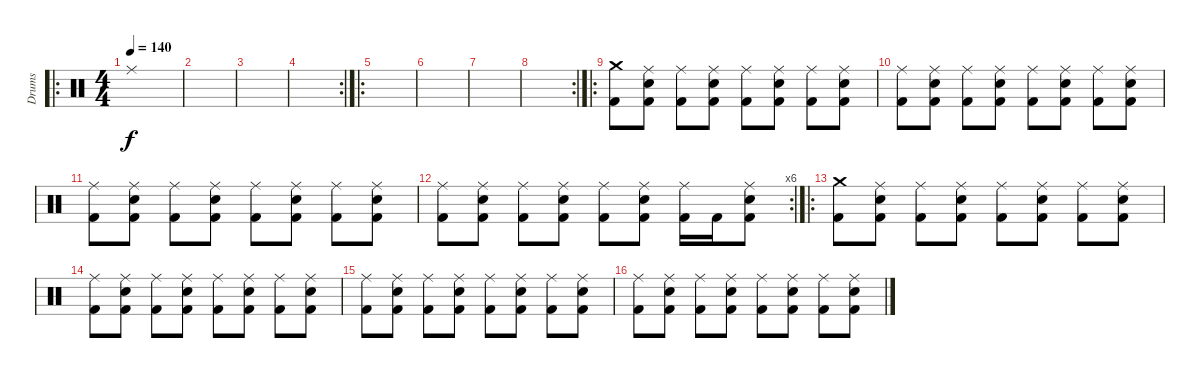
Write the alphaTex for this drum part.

\track ("Drums" "Drums") {instrument percussion}
\staff {score}
\articulation defaults
\ro
\ts (4 4)
\tempo 140
\clef neutral
\ks c "Ride (middle)".1{dy f}
|
|
|
\rc 2
|
\ro
|
|
|
\rc 2
|
\ro
("Crash medium (hit)" "Kick (hit) 2").8 ("Ride (middle)" "Electric Snare (hit)" "Kick (hit) 2").8 ("Ride (middle)" "Kick (hit) 2").8 ("Ride (middle)" "Electric Snare (hit)" "Kick (hit) 2").8 ("Ride (middle)" "Kick (hit) 2").8 ("Ride (middle)" "Electric Snare (hit)" "Kick (hit) 2").8 ("Ride (middle)" "Kick (hit) 2").8 ("Ride (middle)" "Electric Snare (hit)" "Kick (hit) 2").8 |
("Ride (middle)" "Kick (hit) 2").8 ("Ride (middle)" "Electric Snare (hit)" "Kick (hit) 2").8 ("Ride (middle)" "Kick (hit) 2").8 ("Ride (middle)" "Electric Snare (hit)" "Kick (hit) 2").8 ("Ride (middle)" "Kick (hit) 2").8 ("Ride (middle)" "Electric Snare (hit)" "Kick (hit) 2").8 ("Ride (middle)" "Kick (hit) 2").8 ("Ride (middle)" "Electric Snare (hit)" "Kick (hit) 2").8 |
("Ride (middle)" "Kick (hit) 2").8 ("Ride (middle)" "Electric Snare (hit)" "Kick (hit) 2").8 ("Ride (middle)" "Kick (hit) 2").8 ("Ride (middle)" "Electric Snare (hit)" "Kick (hit) 2").8 ("Ride (middle)" "Kick (hit) 2").8 ("Ride (middle)" "Electric Snare (hit)" "Kick (hit) 2").8 ("Ride (middle)" "Kick (hit) 2").8 ("Ride (middle)" "Electric Snare (hit)" "Kick (hit) 2").8 |
\rc 6
("Ride (middle)" "Kick (hit) 2").8 ("Ride (middle)" "Electric Snare (hit)" "Kick (hit) 2").8 ("Ride (middle)" "Kick (hit) 2").8 ("Ride (middle)" "Electric Snare (hit)" "Kick (hit) 2").8 ("Ride (middle)" "Kick (hit) 2").8 ("Ride (middle)" "Electric Snare (hit)" "Kick (hit) 2").8 ("Ride (middle)" "Kick (hit) 2").16 "Kick (hit) 2".16 ("Ride (middle)" "Electric Snare (hit)" "Kick (hit) 2").8 |
\ro
("Crash medium (hit)" "Kick (hit) 2").8 ("Ride (middle)" "Electric Snare (hit)" "Kick (hit) 2").8 ("Ride (middle)" "Kick (hit) 2").8 ("Ride (middle)" "Electric Snare (hit)" "Kick (hit) 2").8 ("Ride (middle)" "Kick (hit) 2").8 ("Ride (middle)" "Electric Snare (hit)" "Kick (hit) 2").8 ("Ride (middle)" "Kick (hit) 2").8 ("Ride (middle)" "Electric Snare (hit)" "Kick (hit) 2").8 |
("Ride (middle)" "Kick (hit) 2").8 ("Ride (middle)" "Electric Snare (hit)" "Kick (hit) 2").8 ("Ride (middle)" "Kick (hit) 2").8 ("Ride (middle)" "Electric Snare (hit)" "Kick (hit) 2").8 ("Ride (middle)" "Kick (hit) 2").8 ("Ride (middle)" "Electric Snare (hit)" "Kick (hit) 2").8 ("Ride (middle)" "Kick (hit) 2").8 ("Ride (middle)" "Electric Snare (hit)" "Kick (hit) 2").8 |
("Ride (middle)" "Kick (hit) 2").8 ("Ride (middle)" "Electric Snare (hit)" "Kick (hit) 2").8 ("Ride (middle)" "Kick (hit) 2").8 ("Ride (middle)" "Electric Snare (hit)" "Kick (hit) 2").8 ("Ride (middle)" "Kick (hit) 2").8 ("Ride (middle)" "Electric Snare (hit)" "Kick (hit) 2").8 ("Ride (middle)" "Kick (hit) 2").8 ("Ride (middle)" "Electric Snare (hit)" "Kick (hit) 2").8 |
("Ride (middle)" "Kick (hit) 2").8 ("Ride (middle)" "Electric Snare (hit)" "Kick (hit) 2").8 ("Ride (middle)" "Kick (hit) 2").8 ("Ride (middle)" "Electric Snare (hit)" "Kick (hit) 2").8 ("Ride (middle)" "Kick (hit) 2").8 ("Ride (middle)" "Electric Snare (hit)" "Kick (hit) 2").8 ("Ride (middle)" "Kick (hit) 2").8 ("Ride (middle)" "Electric Snare (hit)" "Kick (hit) 2").8
